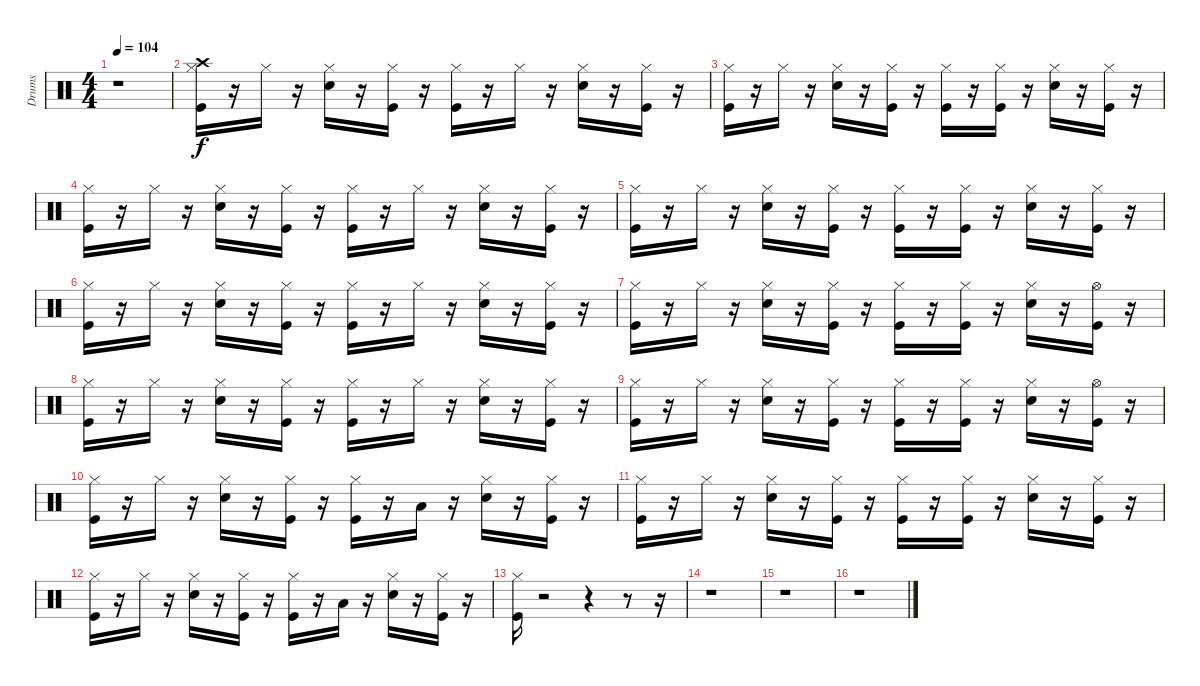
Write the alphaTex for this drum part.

\track ("Drums" "Drums") {instrument percussion}
\staff {score}
\articulation defaults
\ts (4 4)
\tempo 104
\clef neutral
\ks c
r.1{dy f} |
("Kick (hit)" "Hi-Hat (closed)" "Crash high (hit)").16 r.16 "Hi-Hat (closed)".16 r.16 ("Snare (hit) 2" "Hi-Hat (closed)").16 r.16 ("Kick (hit)" "Hi-Hat (closed)").16 r.16 ("Kick (hit)" "Hi-Hat (closed)").16 r.16 "Hi-Hat (closed)".16 r.16 ("Snare (hit) 2" "Hi-Hat (closed)").16 r.16 ("Kick (hit)" "Hi-Hat (closed)").16 r.16 |
("Kick (hit)" "Hi-Hat (closed)").16 r.16 "Hi-Hat (closed)".16 r.16 ("Snare (hit) 2" "Hi-Hat (closed)").16 r.16 ("Kick (hit)" "Hi-Hat (closed)").16 r.16 ("Kick (hit)" "Hi-Hat (closed)").16 r.16 ("Kick (hit)" "Hi-Hat (closed)").16 r.16 ("Snare (hit) 2" "Hi-Hat (closed)").16 r.16 ("Kick (hit)" "Hi-Hat (closed)").16 r.16 |
("Kick (hit)" "Hi-Hat (closed)").16 r.16 "Hi-Hat (closed)".16 r.16 ("Snare (hit) 2" "Hi-Hat (closed)").16 r.16 ("Kick (hit)" "Hi-Hat (closed)").16 r.16 ("Kick (hit)" "Hi-Hat (closed)").16 r.16 "Hi-Hat (closed)".16 r.16 ("Snare (hit) 2" "Hi-Hat (closed)").16 r.16 ("Kick (hit)" "Hi-Hat (closed)").16 r.16 |
("Kick (hit)" "Hi-Hat (closed)").16 r.16 "Hi-Hat (closed)".16 r.16 ("Snare (hit) 2" "Hi-Hat (closed)").16 r.16 ("Kick (hit)" "Hi-Hat (closed)").16 r.16 ("Kick (hit)" "Hi-Hat (closed)").16 r.16 ("Kick (hit)" "Hi-Hat (closed)").16 r.16 ("Snare (hit) 2" "Hi-Hat (closed)").16 r.16 ("Kick (hit)" "Hi-Hat (closed)").16 r.16 |
("Kick (hit)" "Hi-Hat (closed)").16 r.16 "Hi-Hat (closed)".16 r.16 ("Snare (hit) 2" "Hi-Hat (closed)").16 r.16 ("Kick (hit)" "Hi-Hat (closed)").16 r.16 ("Kick (hit)" "Hi-Hat (closed)").16 r.16 "Hi-Hat (closed)".16 r.16 ("Snare (hit) 2" "Hi-Hat (closed)").16 r.16 ("Kick (hit)" "Hi-Hat (closed)").16 r.16 |
("Kick (hit)" "Hi-Hat (closed)").16 r.16 "Hi-Hat (closed)".16 r.16 ("Snare (hit) 2" "Hi-Hat (closed)").16 r.16 ("Kick (hit)" "Hi-Hat (closed)").16 r.16 ("Kick (hit)" "Hi-Hat (closed)").16 r.16 ("Kick (hit)" "Hi-Hat (closed)").16 r.16 ("Snare (hit) 2" "Hi-Hat (closed)").16 r.16 ("Kick (hit)" "Hi-Hat (open)").16 r.16 |
("Kick (hit)" "Hi-Hat (closed)").16 r.16 "Hi-Hat (closed)".16 r.16 ("Snare (hit) 2" "Hi-Hat (closed)").16 r.16 ("Kick (hit)" "Hi-Hat (closed)").16 r.16 ("Kick (hit)" "Hi-Hat (closed)").16 r.16 "Hi-Hat (closed)".16 r.16 ("Snare (hit) 2" "Hi-Hat (closed)").16 r.16 ("Kick (hit)" "Hi-Hat (closed)").16 r.16 |
("Kick (hit)" "Hi-Hat (closed)").16 r.16 "Hi-Hat (closed)".16 r.16 ("Snare (hit) 2" "Hi-Hat (closed)").16 r.16 ("Kick (hit)" "Hi-Hat (closed)").16 r.16 ("Kick (hit)" "Hi-Hat (closed)").16 r.16 ("Kick (hit)" "Hi-Hat (closed)").16 r.16 ("Snare (hit) 2" "Hi-Hat (closed)").16 r.16 ("Kick (hit)" "Hi-Hat (open)").16 r.16 |
("Kick (hit)" "Hi-Hat (closed)").16 r.16 "Hi-Hat (closed)".16 r.16 ("Snare (hit) 2" "Hi-Hat (closed)").16 r.16 ("Kick (hit)" "Hi-Hat (closed)").16 r.16 ("Kick (hit)" "Hi-Hat (closed)").16 r.16 "Low Floor Tom (hit)".16 r.16 ("Snare (hit) 2" "Hi-Hat (closed)").16 r.16 ("Kick (hit)" "Hi-Hat (closed)").16 r.16 |
("Kick (hit)" "Hi-Hat (closed)").16 r.16 "Hi-Hat (closed)".16 r.16 ("Snare (hit) 2" "Hi-Hat (closed)").16 r.16 ("Kick (hit)" "Hi-Hat (closed)").16 r.16 ("Kick (hit)" "Hi-Hat (closed)").16 r.16 ("Kick (hit)" "Hi-Hat (closed)").16 r.16 ("Snare (hit) 2" "Hi-Hat (closed)").16 r.16 ("Kick (hit)" "Hi-Hat (closed)").16 r.16 |
("Kick (hit)" "Hi-Hat (closed)").16 r.16 "Hi-Hat (closed)".16 r.16 ("Snare (hit) 2" "Hi-Hat (closed)").16 r.16 ("Kick (hit)" "Hi-Hat (closed)").16 r.16 ("Kick (hit)" "Hi-Hat (closed)").16 r.16 "Low Floor Tom (hit)".16 r.16 ("Snare (hit) 2" "Hi-Hat (closed)").16 r.16 ("Kick (hit)" "Hi-Hat (closed)").16 r.16 |
("Kick (hit)" "Hi-Hat (closed)").16 r.2 r.4 r.8 r.16 |
r.1 |
r.1 |
r.1
